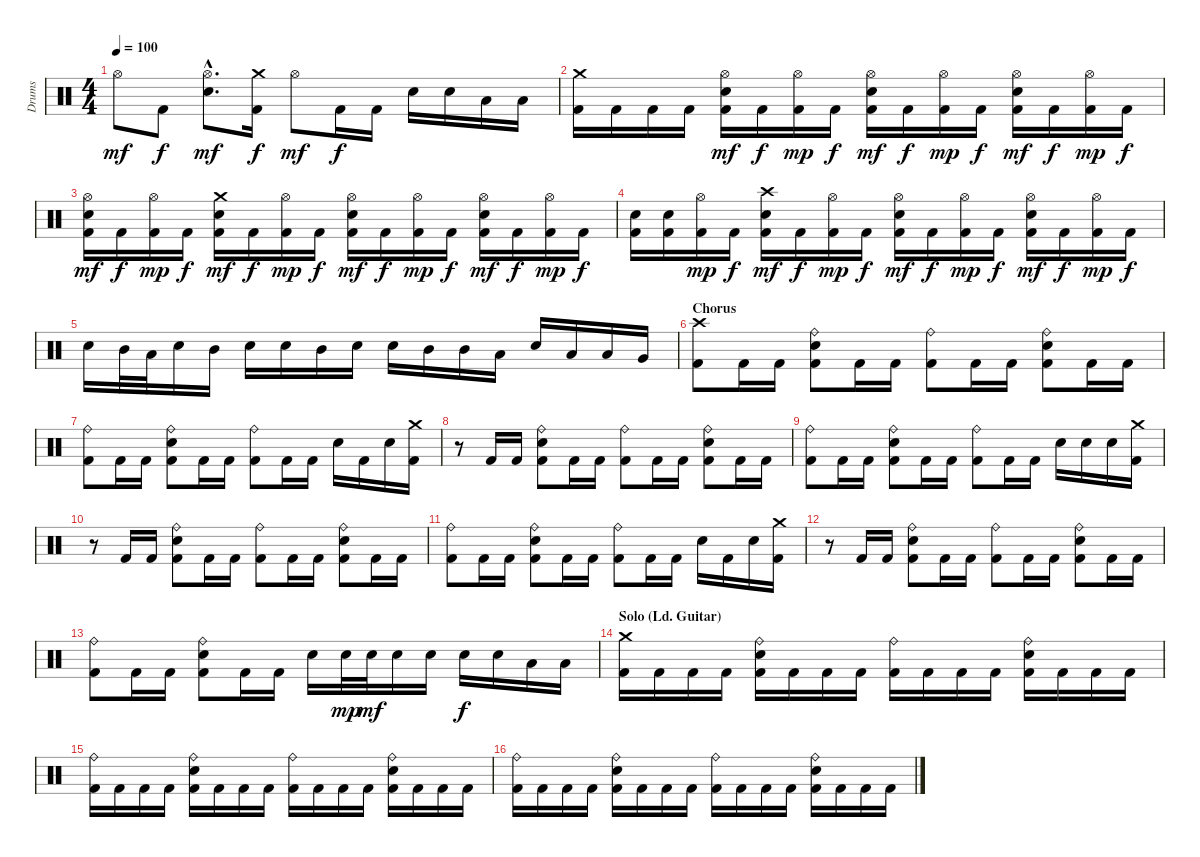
\track ("Drums" "Drums") {instrument percussion}
\staff {score}
\articulation defaults
\ts (4 4)
\tempo 100
\clef neutral
\ks c "Hi-Hat (open)".8{dy mf} "Kick (hit) 2".8{dy f}
("Hi-Hat (open)"{hac} "Electric Snare (hit)"{hac}).8{d dy mf} ("Crash medium (hit)" "Kick (hit) 2").16{dy f} "Hi-Hat (open)".8{dy mf} "Kick (hit) 2".16{dy f} "Kick (hit) 2".16 "Electric Snare (hit)".16 "Electric Snare (hit)".16 "Low Tom (hit)".16 "Low Tom (hit)".16 |
("Crash medium (hit)" "Kick (hit) 2").16 "Kick (hit) 2".16 "Kick (hit) 2".16 "Kick (hit) 2".16 ("Hi-Hat (open)" "Electric Snare (hit)" "Kick (hit) 2").16{dy mf} "Kick (hit) 2".16{dy f} ("Hi-Hat (open)" "Kick (hit) 2").16{dy mp} "Kick (hit) 2".16{dy f} ("Hi-Hat (open)" "Electric Snare (hit)" "Kick (hit) 2").16{dy mf} "Kick (hit) 2".16{dy f} ("Hi-Hat (open)" "Kick (hit) 2").16{dy mp} "Kick (hit) 2".16{dy f} ("Hi-Hat (open)" "Electric Snare (hit)" "Kick (hit) 2").16{dy mf} "Kick (hit) 2".16{dy f} ("Hi-Hat (open)" "Kick (hit) 2").16{dy mp} "Kick (hit) 2".16{dy f} |
("Hi-Hat (open)" "Electric Snare (hit)" "Kick (hit) 2").16{dy mf} "Kick (hit) 2".16{dy f} ("Hi-Hat (open)" "Kick (hit) 2").16{dy mp} "Kick (hit) 2".16{dy f} ("Crash medium (hit)" "Electric Snare (hit)" "Kick (hit) 2").16{dy mf} "Kick (hit) 2".16{dy f} ("Hi-Hat (open)" "Kick (hit) 2").16{dy mp} "Kick (hit) 2".16{dy f} ("Hi-Hat (open)" "Electric Snare (hit)" "Kick (hit) 2").16{dy mf} "Kick (hit) 2".16{dy f} ("Hi-Hat (open)" "Kick (hit) 2").16{dy mp} "Kick (hit) 2".16{dy f} ("Hi-Hat (open)" "Electric Snare (hit)" "Kick (hit) 2").16{dy mf} "Kick (hit) 2".16{dy f} ("Hi-Hat (open)" "Kick (hit) 2").16{dy mp} "Kick (hit) 2".16{dy f} |
("Electric Snare (hit)" "Kick (hit) 2").16 ("Electric Snare (hit)" "Kick (hit) 2").16 ("Hi-Hat (open)" "Kick (hit) 2").16{dy mp} "Kick (hit) 2".16{dy f} ("Crash high (hit)" "Electric Snare (hit)" "Kick (hit) 2").16{dy mf} "Kick (hit) 2".16{dy f} ("Hi-Hat (open)" "Kick (hit) 2").16{dy mp} "Kick (hit) 2".16{dy f} ("Hi-Hat (open)" "Electric Snare (hit)" "Kick (hit) 2").16{dy mf} "Kick (hit) 2".16{dy f} ("Hi-Hat (open)" "Kick (hit) 2").16{dy mp} "Kick (hit) 2".16{dy f} ("Hi-Hat (open)" "Electric Snare (hit)" "Kick (hit) 2").16{dy mf} "Kick (hit) 2".16{dy f} ("Hi-Hat (open)" "Kick (hit) 2").16{dy mp} "Kick (hit) 2".16{dy f} |
"Electric Snare (hit)".16 "Mid Tom (hit)".32 "Low Tom (hit)".32 "Electric Snare (hit)".16 "Mid Tom (hit)".16 "Electric Snare (hit)".16 "Electric Snare (hit)".16 "Mid Tom (hit)".16 "Electric Snare (hit)".16 "Electric Snare (hit)".16 "Mid Tom (hit)".16 "Mid Tom (hit)".16 "Low Tom (hit)".16 "Electric Snare (hit)".16 "Low Tom (hit)".16 "Low Tom (hit)".16 "Very Low Tom (hit)".16 |
\section ("" "Chorus")
("Crash high (hit)" "Kick (hit) 2").8 "Kick (hit) 2".16 "Kick (hit) 2".16 ("Ride (bell)" "Electric Snare (hit)" "Kick (hit) 2").8 "Kick (hit) 2".16 "Kick (hit) 2".16 ("Ride (bell)" "Kick (hit) 2").8 "Kick (hit) 2".16 "Kick (hit) 2".16 ("Ride (bell)" "Electric Snare (hit)" "Kick (hit) 2").8 "Kick (hit) 2".16 "Kick (hit) 2".16 |
("Ride (bell)" "Kick (hit) 2").8 "Kick (hit) 2".16 "Kick (hit) 2".16 ("Ride (bell)" "Electric Snare (hit)" "Kick (hit) 2").8 "Kick (hit) 2".16 "Kick (hit) 2".16 ("Ride (bell)" "Kick (hit) 2").8 "Kick (hit) 2".16 "Kick (hit) 2".16 "Electric Snare (hit)".16 "Kick (hit) 2".16 "Electric Snare (hit)".16 ("Crash medium (hit)" "Kick (hit) 2").16 |
r.8 "Kick (hit) 2".16 "Kick (hit) 2".16 ("Ride (bell)" "Electric Snare (hit)" "Kick (hit) 2").8 "Kick (hit) 2".16 "Kick (hit) 2".16 ("Ride (bell)" "Kick (hit) 2").8 "Kick (hit) 2".16 "Kick (hit) 2".16 ("Ride (bell)" "Electric Snare (hit)" "Kick (hit) 2").8 "Kick (hit) 2".16 "Kick (hit) 2".16 |
("Ride (bell)" "Kick (hit) 2").8 "Kick (hit) 2".16 "Kick (hit) 2".16 ("Ride (bell)" "Electric Snare (hit)" "Kick (hit) 2").8 "Kick (hit) 2".16 "Kick (hit) 2".16 ("Ride (bell)" "Kick (hit) 2").8 "Kick (hit) 2".16 "Kick (hit) 2".16 "Electric Snare (hit)".16 "Electric Snare (hit)".16 "Electric Snare (hit)".16 ("Crash medium (hit)" "Kick (hit) 2").16 |
r.8 "Kick (hit) 2".16 "Kick (hit) 2".16 ("Ride (bell)" "Electric Snare (hit)" "Kick (hit) 2").8 "Kick (hit) 2".16 "Kick (hit) 2".16 ("Ride (bell)" "Kick (hit) 2").8 "Kick (hit) 2".16 "Kick (hit) 2".16 ("Ride (bell)" "Electric Snare (hit)" "Kick (hit) 2").8 "Kick (hit) 2".16 "Kick (hit) 2".16 |
("Ride (bell)" "Kick (hit) 2").8 "Kick (hit) 2".16 "Kick (hit) 2".16 ("Ride (bell)" "Electric Snare (hit)" "Kick (hit) 2").8 "Kick (hit) 2".16 "Kick (hit) 2".16 ("Ride (bell)" "Kick (hit) 2").8 "Kick (hit) 2".16 "Kick (hit) 2".16 "Electric Snare (hit)".16 "Kick (hit) 2".16 "Electric Snare (hit)".16 ("Crash medium (hit)" "Kick (hit) 2").16 |
r.8 "Kick (hit) 2".16 "Kick (hit) 2".16 ("Ride (bell)" "Electric Snare (hit)" "Kick (hit) 2").8 "Kick (hit) 2".16 "Kick (hit) 2".16 ("Ride (bell)" "Kick (hit) 2").8 "Kick (hit) 2".16 "Kick (hit) 2".16 ("Ride (bell)" "Electric Snare (hit)" "Kick (hit) 2").8 "Kick (hit) 2".16 "Kick (hit) 2".16 |
("Ride (bell)" "Kick (hit) 2").8 "Kick (hit) 2".16 "Kick (hit) 2".16 ("Ride (bell)" "Electric Snare (hit)" "Kick (hit) 2").8 "Kick (hit) 2".16 "Kick (hit) 2".16 "Electric Snare (hit)".16 "Electric Snare (hit)".32{dy mp} "Electric Snare (hit)".32{dy mf} "Electric Snare (hit)".16 "Electric Snare (hit)".16 "Electric Snare (hit)".16{dy f} "Electric Snare (hit)".16 "Low Tom (hit)".16 "Low Tom (hit)".16 |
\section ("" "Solo (Ld. Guitar)")
("Crash medium (hit)" "Kick (hit) 2").16 "Kick (hit) 2".16 "Kick (hit) 2".16 "Kick (hit) 2".16 ("Ride (bell)" "Electric Snare (hit)" "Kick (hit) 2").16 "Kick (hit) 2".16 "Kick (hit) 2".16 "Kick (hit) 2".16 ("Ride (bell)" "Kick (hit) 2").16 "Kick (hit) 2".16 "Kick (hit) 2".16 "Kick (hit) 2".16 ("Ride (bell)" "Electric Snare (hit)" "Kick (hit) 2").16 "Kick (hit) 2".16 "Kick (hit) 2".16 "Kick (hit) 2".16 |
("Ride (bell)" "Kick (hit) 2").16 "Kick (hit) 2".16 "Kick (hit) 2".16 "Kick (hit) 2".16 ("Ride (bell)" "Electric Snare (hit)" "Kick (hit) 2").16 "Kick (hit) 2".16 "Kick (hit) 2".16 "Kick (hit) 2".16 ("Ride (bell)" "Kick (hit) 2").16 "Kick (hit) 2".16 "Kick (hit) 2".16 "Kick (hit) 2".16 ("Ride (bell)" "Electric Snare (hit)" "Kick (hit) 2").16 "Kick (hit) 2".16 "Kick (hit) 2".16 "Kick (hit) 2".16 |
("Ride (bell)" "Kick (hit) 2").16 "Kick (hit) 2".16 "Kick (hit) 2".16 "Kick (hit) 2".16 ("Ride (bell)" "Electric Snare (hit)" "Kick (hit) 2").16 "Kick (hit) 2".16 "Kick (hit) 2".16 "Kick (hit) 2".16 ("Ride (bell)" "Kick (hit) 2").16 "Kick (hit) 2".16 "Kick (hit) 2".16 "Kick (hit) 2".16 ("Ride (bell)" "Electric Snare (hit)" "Kick (hit) 2").16 "Kick (hit) 2".16 "Kick (hit) 2".16 "Kick (hit) 2".16
